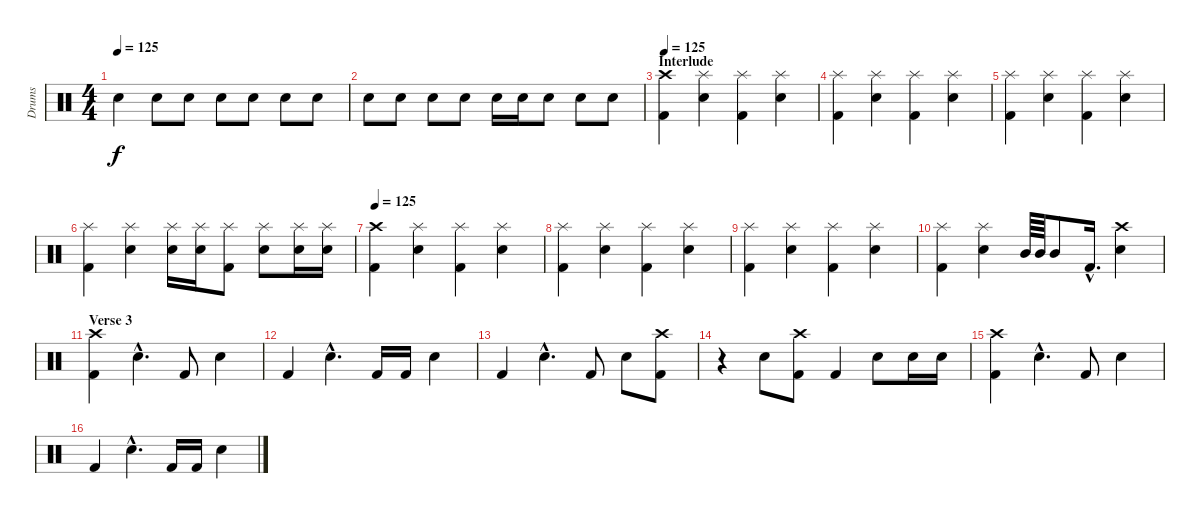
\track ("Drums" "Drums") {instrument percussion}
\staff {score}
\articulation defaults
\ts (4 4)
\tempo 125
\clef neutral
\ks c "Snare (hit) 2".4{dy f} "Snare (hit) 2".8 "Snare (hit) 2".8 "Snare (hit) 2".8 "Snare (hit) 2".8 "Snare (hit) 2".8 "Snare (hit) 2".8
|
"Snare (hit) 2".8 "Snare (hit) 2".8 "Snare (hit) 2".8 "Snare (hit) 2".8 "Snare (hit) 2".16 "Snare (hit) 2".16 "Snare (hit) 2".8 "Snare (hit) 2".8 "Snare (hit) 2".8 |
\section ("" "Interlude")
\tempo 125
("Crash high (hit)" "Kick (hit) 2").4 ("Splash (hit)" "Snare (hit) 2").4 ("Splash (hit)" "Kick (hit) 2").4 ("Splash (hit)" "Snare (hit) 2").4 |
("Splash (hit)" "Kick (hit) 2").4 ("Splash (hit)" "Snare (hit) 2").4 ("Splash (hit)" "Kick (hit) 2").4 ("Splash (hit)" "Snare (hit) 2").4 |
("Splash (hit)" "Kick (hit) 2").4 ("Splash (hit)" "Snare (hit) 2").4 ("Splash (hit)" "Kick (hit) 2").4 ("Splash (hit)" "Snare (hit) 2").4 |
("Splash (hit)" "Kick (hit) 2").4 ("Splash (hit)" "Snare (hit) 2").4 ("Snare (hit) 2" "Splash (hit)").16 ("Snare (hit) 2" "Splash (hit)").16 ("Kick (hit) 2" "Splash (hit)").8 ("Snare (hit) 2" "Splash (hit)").8 ("Snare (hit) 2" "Splash (hit)").16 ("Snare (hit) 2" "Splash (hit)").16 |
\tempo 125
("Crash high (hit)" "Kick (hit) 2").4 ("Splash (hit)" "Snare (hit) 2").4 ("Splash (hit)" "Kick (hit) 2").4 ("Splash (hit)" "Snare (hit) 2").4 |
("Splash (hit)" "Kick (hit) 2").4 ("Splash (hit)" "Snare (hit) 2").4 ("Splash (hit)" "Kick (hit) 2").4 ("Splash (hit)" "Snare (hit) 2").4 |
("Splash (hit)" "Kick (hit) 2").4 ("Splash (hit)" "Snare (hit) 2").4 ("Splash (hit)" "Kick (hit) 2").4 ("Splash (hit)" "Snare (hit) 2").4 |
("Splash (hit)" "Kick (hit) 2").4 ("Splash (hit)" "Snare (hit) 2").4 "Mid Tom (hit)".64 "Mid Tom (hit)".64 "Mid Tom (hit)".8 "Kick (hit) 2"{hac}.16{d} ("Snare (hit) 2" "Crash high (hit)").4 |
\section ("" "Verse 3")
("Kick (hit) 2" "Crash high (hit)").4 "Snare (hit) 2"{hac}.4{d} "Kick (hit) 2".8 "Snare (hit) 2".4 |
"Kick (hit) 2".4 "Snare (hit) 2"{hac}.4{d} "Kick (hit) 2".16 "Kick (hit) 2".16 "Snare (hit) 2".4 |
"Kick (hit) 2".4 "Snare (hit) 2"{hac}.4{d} "Kick (hit) 2".8 "Snare (hit) 2".8 ("Crash high (hit)" "Kick (hit) 2").8 |
r.4 "Snare (hit) 2".8 ("Kick (hit) 2" "Crash high (hit)").8 "Kick (hit) 2".4 "Snare (hit) 2".8 "Snare (hit) 2".16 "Snare (hit) 2".16 |
("Kick (hit) 2" "Crash high (hit)").4 "Snare (hit) 2"{hac}.4{d} "Kick (hit) 2".8 "Snare (hit) 2".4 |
"Kick (hit) 2".4 "Snare (hit) 2"{hac}.4{d} "Kick (hit) 2".16 "Kick (hit) 2".16 "Snare (hit) 2".4
